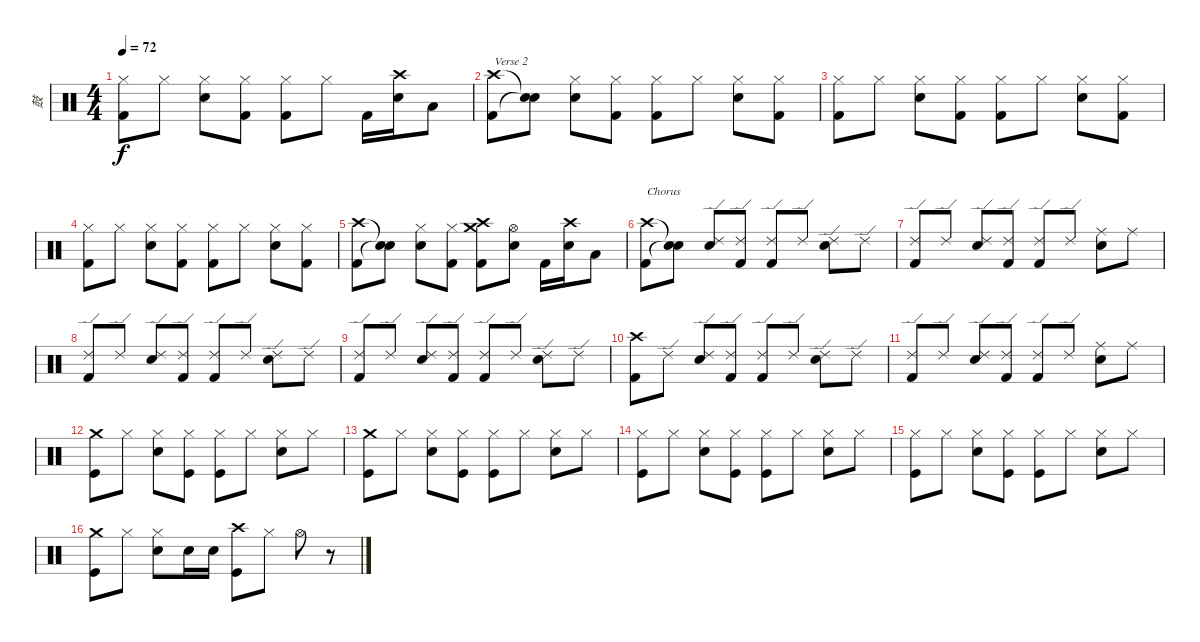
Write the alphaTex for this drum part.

\track ("鼓" "鼓") {instrument percussion}
\staff {score}
\articulation defaults
\ts (4 4)
\tempo 72
\clef neutral
\ks c
("Hi-Hat (closed)" "Kick (hit) 2").8{dy f} "Hi-Hat (closed)".8 ("Hi-Hat (closed)" "Electric Snare (hit)").8 ("Hi-Hat (closed)" "Kick (hit) 2").8 ("Hi-Hat (closed)" "Kick (hit) 2").8 "Hi-Hat (closed)".8 "Kick (hit) 2".16 ("Crash high (hit)" "Electric Snare (hit)").16 "Low Tom (hit)".8 |
("Crash high (hit)" "Kick (hit) 2").8{txt "Verse 2"} ("Snare (hit)"{t} "Snare (hit)"{t}).8 ("Hi-Hat (closed)" "Electric Snare (hit)").8 ("Hi-Hat (closed)" "Kick (hit) 2").8 ("Hi-Hat (closed)" "Kick (hit) 2").8 "Hi-Hat (closed)".8 ("Hi-Hat (closed)" "Electric Snare (hit)").8 ("Hi-Hat (closed)" "Kick (hit) 2").8 |
("Hi-Hat (closed)" "Kick (hit) 2").8 "Hi-Hat (closed)".8 ("Hi-Hat (closed)" "Electric Snare (hit)").8 ("Hi-Hat (closed)" "Kick (hit) 2").8 ("Hi-Hat (closed)" "Kick (hit) 2").8 "Hi-Hat (closed)".8 ("Hi-Hat (closed)" "Electric Snare (hit)").8 ("Hi-Hat (closed)" "Kick (hit) 2").8 |
("Hi-Hat (closed)" "Kick (hit) 2").8 "Hi-Hat (closed)".8 ("Hi-Hat (closed)" "Electric Snare (hit)").8 ("Hi-Hat (closed)" "Kick (hit) 2").8 ("Hi-Hat (closed)" "Kick (hit) 2").8 "Hi-Hat (closed)".8 ("Hi-Hat (closed)" "Electric Snare (hit)").8 ("Hi-Hat (closed)" "Kick (hit) 2").8 |
("Crash high (hit)" "Kick (hit) 2").8 ("Snare (hit)"{t} "Snare (hit)"{t}).8 ("Hi-Hat (closed)" "Electric Snare (hit)").8 ("Hi-Hat (closed)" "Kick (hit) 2").8 ("Crash high (hit)" "Crash medium (hit)" "Kick (hit) 2").8 ("Hi-Hat (open)" "Electric Snare (hit)").8 "Kick (hit) 2".16 ("Crash high (hit)" "Electric Snare (hit)").16 "Low Tom (hit)".8 |
("Crash high (hit)" "Kick (hit) 2").8{txt "Chorus"} ("Snare (hit)"{t} "Snare (hit)"{t}).8 ("Ride (edge) 2" "Electric Snare (hit)").8 ("Ride (edge) 2" "Kick (hit) 2").8 ("Ride (edge) 2" "Kick (hit) 2").8 "Ride (edge) 2".8 ("Ride (edge) 2" "Electric Snare (hit)").8 "Ride (edge) 2".8 |
("Ride (edge) 2" "Kick (hit) 2").8 "Ride (edge) 2".8 ("Ride (edge) 2" "Electric Snare (hit)").8 ("Ride (edge) 2" "Kick (hit) 2").8 ("Ride (edge) 2" "Kick (hit) 2").8 "Ride (edge) 2".8 ("Ride (middle)" "Electric Snare (hit)").8 "Ride (middle)".8 |
("Ride (edge) 2" "Kick (hit) 2").8 "Ride (edge) 2".8 ("Ride (edge) 2" "Electric Snare (hit)").8 ("Ride (edge) 2" "Kick (hit) 2").8 ("Ride (edge) 2" "Kick (hit) 2").8 "Ride (edge) 2".8 ("Ride (edge) 2" "Electric Snare (hit)").8 "Ride (edge) 2".8 |
("Ride (edge) 2" "Kick (hit) 2").8 "Ride (edge) 2".8 ("Ride (edge) 2" "Electric Snare (hit)").8 ("Ride (edge) 2" "Kick (hit) 2").8 ("Ride (edge) 2" "Kick (hit) 2").8 "Ride (edge) 2".8 ("Ride (edge) 2" "Electric Snare (hit)").8 "Ride (edge) 2".8 |
("Crash high (hit)" "Kick (hit) 2").8 "Ride (edge) 2".8 ("Ride (edge) 2" "Electric Snare (hit)").8 ("Ride (edge) 2" "Kick (hit) 2").8 ("Ride (edge) 2" "Kick (hit) 2").8 "Ride (edge) 2".8 ("Ride (edge) 2" "Electric Snare (hit)").8 "Ride (edge) 2".8 |
("Ride (edge) 2" "Kick (hit) 2").8 "Ride (edge) 2".8 ("Ride (edge) 2" "Electric Snare (hit)").8 ("Ride (edge) 2" "Kick (hit) 2").8 ("Ride (edge) 2" "Kick (hit) 2").8 "Ride (edge) 2".8 ("Ride (middle)" "Electric Snare (hit)").8 "Ride (middle)".8 |
("Crash medium (hit)" "Kick (hit)").8 "Hi-Hat (closed)".8 ("Hi-Hat (closed)" "Snare (hit) 2").8 ("Hi-Hat (closed)" "Kick (hit)").8 ("Hi-Hat (closed)" "Kick (hit)").8 "Hi-Hat (closed)".8 ("Hi-Hat (closed)" "Snare (hit) 2").8 "Hi-Hat (closed)".8 |
("Crash medium (hit)" "Kick (hit)").8 "Hi-Hat (closed)".8 ("Hi-Hat (closed)" "Snare (hit) 2").8 ("Hi-Hat (closed)" "Kick (hit)").8 ("Hi-Hat (closed)" "Kick (hit)").8 "Hi-Hat (closed)".8 ("Hi-Hat (closed)" "Snare (hit) 2").8 "Hi-Hat (closed)".8 |
("Hi-Hat (closed)" "Kick (hit)").8 "Hi-Hat (closed)".8 ("Hi-Hat (closed)" "Snare (hit) 2").8 ("Hi-Hat (closed)" "Kick (hit)").8 ("Hi-Hat (closed)" "Kick (hit)").8 "Hi-Hat (closed)".8 ("Hi-Hat (closed)" "Snare (hit) 2").8 "Hi-Hat (closed)".8 |
("Hi-Hat (closed)" "Kick (hit)").8 "Hi-Hat (closed)".8 ("Hi-Hat (closed)" "Snare (hit) 2").8 ("Hi-Hat (closed)" "Kick (hit)").8 ("Hi-Hat (closed)" "Kick (hit)").8 "Hi-Hat (closed)".8 ("Hi-Hat (closed)" "Snare (hit) 2").8 "Hi-Hat (closed)".8 |
("Crash medium (hit)" "Kick (hit)").8 "Hi-Hat (closed)".8 ("Hi-Hat (closed)" "Snare (hit) 2").8 "Snare (hit) 2".16 "Snare (hit) 2".16 ("Crash high (hit)" "Kick (hit)").8 "Hi-Hat (closed)".8 "Hi-Hat (open)".8 r.8
